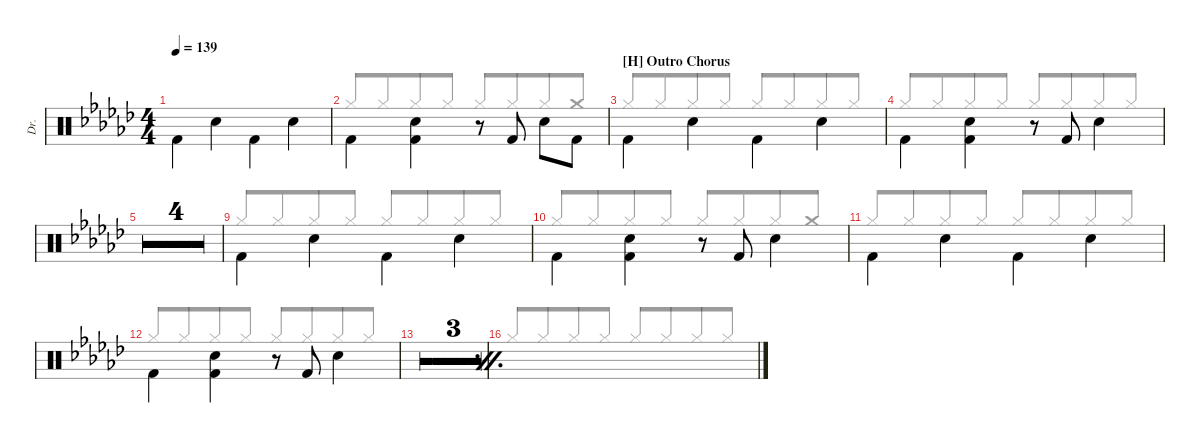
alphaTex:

\defaultSystemsLayout 4
\hideDynamics
\bracketExtendMode groupsimilarinstruments
\otherSystemsTrackNameOrientation horizontal
\track ("Drums" "Dr.") {multiBarRest instrument percussion}
\staff {score}
\articulation defaults
\voice
\ts (4 4)
\tempo 139
\clef neutral
\ks gb "Kick (hit) 2"{acc forcenatural}.4{dy f beam Down} "Snare (hit) 2"{acc forcenatural}.4{beam Down} "Kick (hit) 2"{acc forcenatural}.4{beam Down} "Snare (hit) 2"{acc forcenatural}.4{beam Down}
|
"Kick (hit) 2"{acc forcenatural}.4{beam Down} ("Snare (hit) 2"{acc forcenatural} "Kick (hit) 2"{acc forcenatural}).4{beam Down} r.8{beam Up} "Kick (hit) 2"{acc forcenatural}.8{beam Down} "Snare (hit) 2"{acc forcenatural}.8{beam Down} "Kick (hit) 2"{acc forcenatural}.8{beam Down} |
\section ("H" "Outro Chorus")
"Kick (hit) 2"{acc forcenatural}.4{beam Down} "Snare (hit) 2"{acc forcenatural}.4{beam Down} "Kick (hit) 2"{acc forcenatural}.4{beam Down} "Snare (hit) 2"{acc forcenatural}.4{beam Down} |
"Kick (hit) 2"{acc forcenatural}.4{beam Down} ("Kick (hit) 2"{acc forcenatural} "Snare (hit) 2"{acc forcenatural}).4{beam Down} r.8{beam Up} "Kick (hit) 2"{acc forcenatural}.8{beam Down} "Snare (hit) 2"{acc forcenatural}.4{beam Down} |
\simile firstofdouble
|
\simile secondofdouble
|
\simile firstofdouble
|
\simile secondofdouble
|
\simile none "Kick (hit) 2"{acc forcenatural}.4{beam Down} "Snare (hit) 2"{acc forcenatural}.4{beam Down} "Kick (hit) 2"{acc forcenatural}.4{beam Down} "Snare (hit) 2"{acc forcenatural}.4{beam Down}
|
"Kick (hit) 2"{acc forcenatural}.4{beam Down} ("Kick (hit) 2"{acc forcenatural} "Snare (hit) 2"{acc forcenatural}).4{beam Down} r.8{beam Up} "Kick (hit) 2"{acc forcenatural}.8{beam Down} "Snare (hit) 2"{acc forcenatural}.4{beam Down} |
"Kick (hit) 2"{acc forcenatural}.4{beam Down} "Snare (hit) 2"{acc forcenatural}.4{beam Down} "Kick (hit) 2"{acc forcenatural}.4{beam Down} "Snare (hit) 2"{acc forcenatural}.4{beam Down} |
"Kick (hit) 2"{acc forcenatural}.4{beam Down} ("Kick (hit) 2"{acc forcenatural} "Snare (hit) 2"{acc forcenatural}).4{beam Down} r.8{beam Up} "Kick (hit) 2"{acc forcenatural}.8{beam Down} "Snare (hit) 2"{acc forcenatural}.4{beam Down} |
\simile firstofdouble
|
\simile secondofdouble
|
\simile firstofdouble
|
\simile secondofdouble
\voice
\clef neutral
\ottava regular
\simile none
\ks gb "Hi-Hat (closed)"{acc forcenatural}.8{dy f beam Up} "Hi-Hat (closed)"{acc forcenatural}.8{beam Up beam merge} "Hi-Hat (closed)"{acc forcenatural}.8{beam Up} "Hi-Hat (closed)"{acc forcenatural}.8{beam Up} "Hi-Hat (closed)"{acc forcenatural}.8{beam Up} "Hi-Hat (closed)"{acc forcenatural}.8{beam Up beam merge} "Hi-Hat (closed)"{acc forcenatural}.8{beam Up} "Hi-Hat (closed)"{acc forcenatural}.8{beam Up}
|
"Hi-Hat (closed)"{acc forcenatural}.8{beam Up beam merge} "Hi-Hat (closed)"{acc forcenatural}.8{beam Up beam merge} "Hi-Hat (closed)"{acc forcenatural}.8{beam Up} "Hi-Hat (closed)"{acc forcenatural}.8{beam Up} "Hi-Hat (closed)"{acc forcenatural}.8{beam Up} "Hi-Hat (closed)"{acc forcenatural}.8{beam Up beam merge} "Hi-Hat (closed)"{acc forcenatural}.8{beam Up beam merge} "Crash medium (hit)"{acc forcenatural}.8{beam Up} |
"Hi-Hat (closed)"{acc forcenatural}.8{beam Up} "Hi-Hat (closed)"{acc forcenatural}.8{beam Up beam merge} "Hi-Hat (closed)"{acc forcenatural}.8{beam Up} "Hi-Hat (closed)"{acc forcenatural}.8{beam Up} "Hi-Hat (closed)"{acc forcenatural}.8{beam Up} "Hi-Hat (closed)"{acc forcenatural}.8{beam Up beam merge} "Hi-Hat (closed)"{acc forcenatural}.8{beam Up} "Hi-Hat (closed)"{acc forcenatural}.8{beam Up} |
"Hi-Hat (closed)"{acc forcenatural}.8{beam Up} "Hi-Hat (closed)"{acc forcenatural}.8{beam Up beam merge} "Hi-Hat (closed)"{acc forcenatural}.8{beam Up} "Hi-Hat (closed)"{acc forcenatural}.8{beam Up} "Hi-Hat (closed)"{acc forcenatural}.8{beam Up beam merge} "Hi-Hat (closed)"{acc forcenatural}.8{beam Up beam merge} "Hi-Hat (closed)"{acc forcenatural}.8{beam Up beam merge} "Hi-Hat (closed)"{acc forcenatural}.8{beam Up} |
\simile firstofdouble
|
\simile secondofdouble
|
\simile firstofdouble
|
\simile secondofdouble
|
\simile none "Hi-Hat (closed)"{acc forcenatural}.8{beam Up} "Hi-Hat (closed)"{acc forcenatural}.8{beam Up beam merge} "Hi-Hat (closed)"{acc forcenatural}.8{beam Up} "Hi-Hat (closed)"{acc forcenatural}.8{beam Up} "Hi-Hat (closed)"{acc forcenatural}.8{beam Up} "Hi-Hat (closed)"{acc forcenatural}.8{beam Up beam merge} "Hi-Hat (closed)"{acc forcenatural}.8{beam Up} "Hi-Hat (closed)"{acc forcenatural}.8{beam Up}
|
"Hi-Hat (closed)"{acc forcenatural}.8{beam Up beam merge} "Hi-Hat (closed)"{acc forcenatural}.8{beam Up beam merge} "Hi-Hat (closed)"{acc forcenatural}.8{beam Up} "Hi-Hat (closed)"{acc forcenatural}.8{beam Up} "Hi-Hat (closed)"{acc forcenatural}.8{beam Up} "Hi-Hat (closed)"{acc forcenatural}.8{beam Up beam merge} "Hi-Hat (closed)"{acc forcenatural}.8{beam Up beam merge} "Crash medium (hit)"{acc forcenatural}.8{beam Up} |
"Hi-Hat (closed)"{acc forcenatural}.8{beam Up} "Hi-Hat (closed)"{acc forcenatural}.8{beam Up beam merge} "Hi-Hat (closed)"{acc forcenatural}.8{beam Up} "Hi-Hat (closed)"{acc forcenatural}.8{beam Up} "Hi-Hat (closed)"{acc forcenatural}.8{beam Up} "Hi-Hat (closed)"{acc forcenatural}.8{beam Up beam merge} "Hi-Hat (closed)"{acc forcenatural}.8{beam Up} "Hi-Hat (closed)"{acc forcenatural}.8{beam Up} |
"Hi-Hat (closed)"{acc forcenatural}.8{beam Up} "Hi-Hat (closed)"{acc forcenatural}.8{beam Up beam merge} "Hi-Hat (closed)"{acc forcenatural}.8{beam Up} "Hi-Hat (closed)"{acc forcenatural}.8{beam Up} "Hi-Hat (closed)"{acc forcenatural}.8{beam Up beam merge} "Hi-Hat (closed)"{acc forcenatural}.8{beam Up beam merge} "Hi-Hat (closed)"{acc forcenatural}.8{beam Up beam merge} "Hi-Hat (closed)"{acc forcenatural}.8{beam Up} |
\simile firstofdouble
|
\simile secondofdouble
|
\simile firstofdouble
|
\simile secondofdouble
